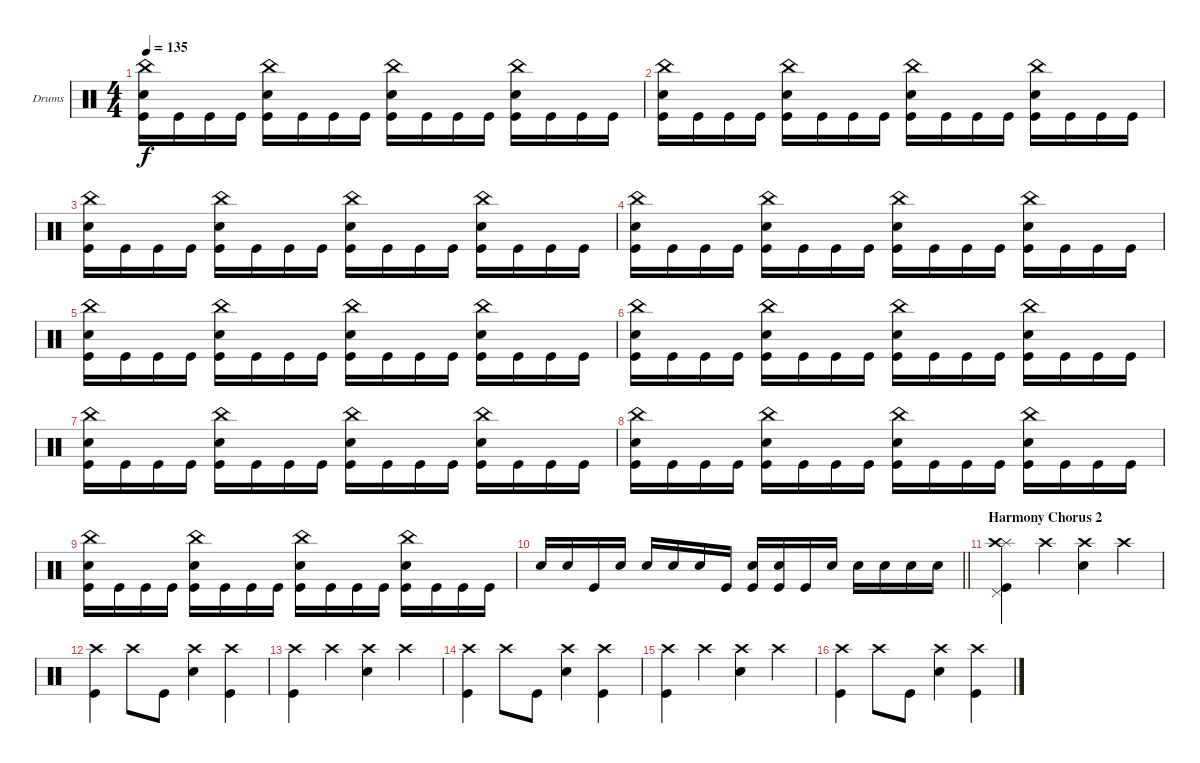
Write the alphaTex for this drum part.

\bracketExtendMode groupsimilarinstruments
\firstSystemTrackNameOrientation horizontal
\otherSystemsTrackNameOrientation horizontal
\track ("Drumkit" "Drums") {instrument percussion}
\staff {score}
\articulation defaults
\ts (4 4)
\tempo 135
\clef neutral
\ks c
("Kick (hit)" "Snare (hit) 2" "China (hit)").16{dy f} "Kick (hit)".16 "Kick (hit)".16 "Kick (hit)".16 ("Kick (hit)" "Snare (hit) 2" "China (hit)").16 "Kick (hit)".16 "Kick (hit)".16 "Kick (hit)".16 ("Kick (hit)" "Snare (hit) 2" "China (hit)").16 "Kick (hit)".16 "Kick (hit)".16 "Kick (hit)".16 ("Kick (hit)" "Snare (hit) 2" "China (hit)").16 "Kick (hit)".16 "Kick (hit)".16 "Kick (hit)".16 |
("Kick (hit)" "Snare (hit) 2" "China (hit)").16 "Kick (hit)".16 "Kick (hit)".16 "Kick (hit)".16 ("Kick (hit)" "Snare (hit) 2" "China (hit)").16 "Kick (hit)".16 "Kick (hit)".16 "Kick (hit)".16 ("Kick (hit)" "Snare (hit) 2" "China (hit)").16 "Kick (hit)".16 "Kick (hit)".16 "Kick (hit)".16 ("Kick (hit)" "Snare (hit) 2" "China (hit)").16 "Kick (hit)".16 "Kick (hit)".16 "Kick (hit)".16 |
("Kick (hit)" "Snare (hit) 2" "China (hit)").16 "Kick (hit)".16 "Kick (hit)".16 "Kick (hit)".16 ("Kick (hit)" "Snare (hit) 2" "China (hit)").16 "Kick (hit)".16 "Kick (hit)".16 "Kick (hit)".16 ("Kick (hit)" "Snare (hit) 2" "China (hit)").16 "Kick (hit)".16 "Kick (hit)".16 "Kick (hit)".16 ("Kick (hit)" "Snare (hit) 2" "China (hit)").16 "Kick (hit)".16 "Kick (hit)".16 "Kick (hit)".16 |
("Kick (hit)" "Snare (hit) 2" "China (hit)").16 "Kick (hit)".16 "Kick (hit)".16 "Kick (hit)".16 ("Kick (hit)" "Snare (hit) 2" "China (hit)").16 "Kick (hit)".16 "Kick (hit)".16 "Kick (hit)".16 ("Kick (hit)" "Snare (hit) 2" "China (hit)").16 "Kick (hit)".16 "Kick (hit)".16 "Kick (hit)".16 ("Kick (hit)" "Snare (hit) 2" "China (hit)").16 "Kick (hit)".16 "Kick (hit)".16 "Kick (hit)".16 |
("Kick (hit)" "Snare (hit) 2" "China (hit)").16 "Kick (hit)".16 "Kick (hit)".16 "Kick (hit)".16 ("Kick (hit)" "Snare (hit) 2" "China (hit)").16 "Kick (hit)".16 "Kick (hit)".16 "Kick (hit)".16 ("Kick (hit)" "Snare (hit) 2" "China (hit)").16 "Kick (hit)".16 "Kick (hit)".16 "Kick (hit)".16 ("Kick (hit)" "Snare (hit) 2" "China (hit)").16 "Kick (hit)".16 "Kick (hit)".16 "Kick (hit)".16 |
("Kick (hit)" "Snare (hit) 2" "China (hit)").16 "Kick (hit)".16 "Kick (hit)".16 "Kick (hit)".16 ("Kick (hit)" "Snare (hit) 2" "China (hit)").16 "Kick (hit)".16 "Kick (hit)".16 "Kick (hit)".16 ("Kick (hit)" "Snare (hit) 2" "China (hit)").16 "Kick (hit)".16 "Kick (hit)".16 "Kick (hit)".16 ("Kick (hit)" "Snare (hit) 2" "China (hit)").16 "Kick (hit)".16 "Kick (hit)".16 "Kick (hit)".16 |
("Kick (hit)" "Snare (hit) 2" "China (hit)").16 "Kick (hit)".16 "Kick (hit)".16 "Kick (hit)".16 ("Kick (hit)" "Snare (hit) 2" "China (hit)").16 "Kick (hit)".16 "Kick (hit)".16 "Kick (hit)".16 ("Kick (hit)" "Snare (hit) 2" "China (hit)").16 "Kick (hit)".16 "Kick (hit)".16 "Kick (hit)".16 ("Kick (hit)" "Snare (hit) 2" "China (hit)").16 "Kick (hit)".16 "Kick (hit)".16 "Kick (hit)".16 |
("Kick (hit)" "Snare (hit) 2" "China (hit)").16 "Kick (hit)".16 "Kick (hit)".16 "Kick (hit)".16 ("Kick (hit)" "Snare (hit) 2" "China (hit)").16 "Kick (hit)".16 "Kick (hit)".16 "Kick (hit)".16 ("Kick (hit)" "Snare (hit) 2" "China (hit)").16 "Kick (hit)".16 "Kick (hit)".16 "Kick (hit)".16 ("Kick (hit)" "Snare (hit) 2" "China (hit)").16 "Kick (hit)".16 "Kick (hit)".16 "Kick (hit)".16 |
("Kick (hit)" "Snare (hit) 2" "China (hit)").16 "Kick (hit)".16 "Kick (hit)".16 "Kick (hit)".16 ("Kick (hit)" "Snare (hit) 2" "China (hit)").16 "Kick (hit)".16 "Kick (hit)".16 "Kick (hit)".16 ("Kick (hit)" "Snare (hit) 2" "China (hit)").16 "Kick (hit)".16 "Kick (hit)".16 "Kick (hit)".16 ("Kick (hit)" "Snare (hit) 2" "China (hit)").16 "Kick (hit)".16 "Kick (hit)".16 "Kick (hit)".16 |
\barLineRight lightlight "Snare (hit) 2".16 "Snare (hit) 2".16 "Kick (hit)".16 "Snare (hit) 2".16 "Snare (hit) 2".16 "Snare (hit) 2".16 "Snare (hit) 2".16 "Kick (hit)".16
("Snare (hit) 2" "Kick (hit)").16 ("Snare (hit) 2" "Kick (hit)").16 "Kick (hit)".16 "Snare (hit) 2".16 "Snare (hit) 2".16 "Snare (hit) 2".16 "Snare (hit) 2".16 "Snare (hit) 2".16 |
\section ("" "Harmony Chorus 2")
("Kick (hit)" "Pedal Hi-Hat (hit)" "Splash (hit)" "Crash high (hit)").4 "Crash high (hit)".4 ("Snare (hit) 2" "Crash high (hit)").4 "Crash high (hit)".4 |
("Kick (hit)" "Crash high (hit)").4 "Crash high (hit)".8 "Kick (hit)".8 ("Snare (hit) 2" "Crash high (hit)").4 ("Crash high (hit)" "Kick (hit)").4 |
("Kick (hit)" "Crash high (hit)").4 "Crash high (hit)".4 ("Snare (hit) 2" "Crash high (hit)").4 "Crash high (hit)".4 |
("Kick (hit)" "Crash high (hit)").4 "Crash high (hit)".8 "Kick (hit)".8 ("Snare (hit) 2" "Crash high (hit)").4 ("Crash high (hit)" "Kick (hit)").4 |
("Kick (hit)" "Crash high (hit)").4 "Crash high (hit)".4 ("Snare (hit) 2" "Crash high (hit)").4 "Crash high (hit)".4 |
("Kick (hit)" "Crash high (hit)").4 "Crash high (hit)".8 "Kick (hit)".8 ("Snare (hit) 2" "Crash high (hit)").4 ("Crash high (hit)" "Kick (hit)").4
